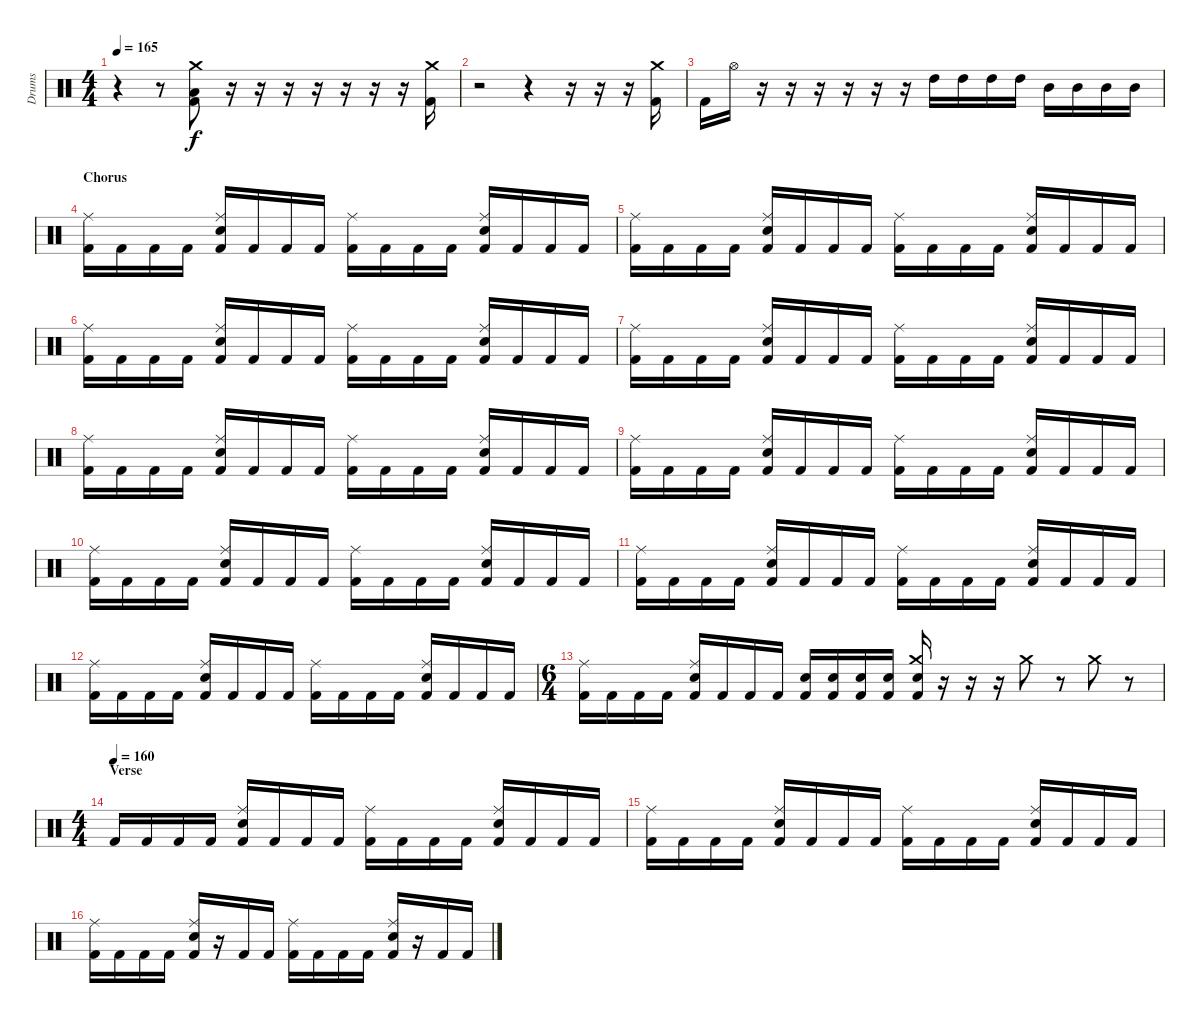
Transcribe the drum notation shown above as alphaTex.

\track ("Drums" "Drums") {instrument percussion}
\staff {score}
\articulation defaults
\ts (4 4)
\tempo 165
\clef neutral
\ks c
r.4{dy f} r.8 ("Kick (hit) 2" "Low Tom (hit)" "Crash medium (hit)").8 r.16 r.16 r.16 r.16 r.16 r.16 r.16 ("Kick (hit) 2" "Crash medium (hit)").16 |
r.2 r.4 r.16 r.16 r.16 ("Kick (hit) 2" "Crash medium (hit)").16 |
"Kick (hit) 2".16 "Hi-Hat (open)".16 r.16 r.16 r.16 r.16 r.16 r.16 "High Tom (hit)".16 "High Tom (hit)".16 "High Tom (hit)".16 "High Tom (hit)".16 "Mid Tom (hit)".16 "Mid Tom (hit)".16 "Mid Tom (hit)".16 "Mid Tom (hit)".16 |
\section ("" "Chorus")
("Kick (hit) 2" "Ride (middle)").16 "Kick (hit) 2".16 "Kick (hit) 2".16 "Kick (hit) 2".16 ("Kick (hit) 2" "Electric Snare (hit)" "Ride (middle)").16 "Kick (hit) 2".16 "Kick (hit) 2".16 "Kick (hit) 2".16 ("Kick (hit) 2" "Ride (middle)").16 "Kick (hit) 2".16 "Kick (hit) 2".16 "Kick (hit) 2".16 ("Kick (hit) 2" "Electric Snare (hit)" "Ride (middle)").16 "Kick (hit) 2".16 "Kick (hit) 2".16 "Kick (hit) 2".16 |
("Kick (hit) 2" "Ride (middle)").16 "Kick (hit) 2".16 "Kick (hit) 2".16 "Kick (hit) 2".16 ("Kick (hit) 2" "Electric Snare (hit)" "Ride (middle)").16 "Kick (hit) 2".16 "Kick (hit) 2".16 "Kick (hit) 2".16 ("Kick (hit) 2" "Ride (middle)").16 "Kick (hit) 2".16 "Kick (hit) 2".16 "Kick (hit) 2".16 ("Kick (hit) 2" "Electric Snare (hit)" "Ride (middle)").16 "Kick (hit) 2".16 "Kick (hit) 2".16 "Kick (hit) 2".16 |
("Kick (hit) 2" "Ride (middle)").16 "Kick (hit) 2".16 "Kick (hit) 2".16 "Kick (hit) 2".16 ("Kick (hit) 2" "Electric Snare (hit)" "Ride (middle)").16 "Kick (hit) 2".16 "Kick (hit) 2".16 "Kick (hit) 2".16 ("Kick (hit) 2" "Ride (middle)").16 "Kick (hit) 2".16 "Kick (hit) 2".16 "Kick (hit) 2".16 ("Kick (hit) 2" "Electric Snare (hit)" "Ride (middle)").16 "Kick (hit) 2".16 "Kick (hit) 2".16 "Kick (hit) 2".16 |
("Kick (hit) 2" "Ride (middle)").16 "Kick (hit) 2".16 "Kick (hit) 2".16 "Kick (hit) 2".16 ("Kick (hit) 2" "Electric Snare (hit)" "Ride (middle)").16 "Kick (hit) 2".16 "Kick (hit) 2".16 "Kick (hit) 2".16 ("Kick (hit) 2" "Ride (middle)").16 "Kick (hit) 2".16 "Kick (hit) 2".16 "Kick (hit) 2".16 ("Kick (hit) 2" "Electric Snare (hit)" "Ride (middle)").16 "Kick (hit) 2".16 "Kick (hit) 2".16 "Kick (hit) 2".16 |
("Kick (hit) 2" "Ride (middle)").16 "Kick (hit) 2".16 "Kick (hit) 2".16 "Kick (hit) 2".16 ("Kick (hit) 2" "Electric Snare (hit)" "Ride (middle)").16 "Kick (hit) 2".16 "Kick (hit) 2".16 "Kick (hit) 2".16 ("Kick (hit) 2" "Ride (middle)").16 "Kick (hit) 2".16 "Kick (hit) 2".16 "Kick (hit) 2".16 ("Kick (hit) 2" "Electric Snare (hit)" "Ride (middle)").16 "Kick (hit) 2".16 "Kick (hit) 2".16 "Kick (hit) 2".16 |
("Kick (hit) 2" "Ride (middle)").16 "Kick (hit) 2".16 "Kick (hit) 2".16 "Kick (hit) 2".16 ("Kick (hit) 2" "Electric Snare (hit)" "Ride (middle)").16 "Kick (hit) 2".16 "Kick (hit) 2".16 "Kick (hit) 2".16 ("Kick (hit) 2" "Ride (middle)").16 "Kick (hit) 2".16 "Kick (hit) 2".16 "Kick (hit) 2".16 ("Kick (hit) 2" "Electric Snare (hit)" "Ride (middle)").16 "Kick (hit) 2".16 "Kick (hit) 2".16 "Kick (hit) 2".16 |
("Kick (hit) 2" "Ride (middle)").16 "Kick (hit) 2".16 "Kick (hit) 2".16 "Kick (hit) 2".16 ("Kick (hit) 2" "Electric Snare (hit)" "Ride (middle)").16 "Kick (hit) 2".16 "Kick (hit) 2".16 "Kick (hit) 2".16 ("Kick (hit) 2" "Ride (middle)").16 "Kick (hit) 2".16 "Kick (hit) 2".16 "Kick (hit) 2".16 ("Kick (hit) 2" "Electric Snare (hit)" "Ride (middle)").16 "Kick (hit) 2".16 "Kick (hit) 2".16 "Kick (hit) 2".16 |
("Kick (hit) 2" "Ride (middle)").16 "Kick (hit) 2".16 "Kick (hit) 2".16 "Kick (hit) 2".16 ("Kick (hit) 2" "Electric Snare (hit)" "Ride (middle)").16 "Kick (hit) 2".16 "Kick (hit) 2".16 "Kick (hit) 2".16 ("Kick (hit) 2" "Ride (middle)").16 "Kick (hit) 2".16 "Kick (hit) 2".16 "Kick (hit) 2".16 ("Kick (hit) 2" "Electric Snare (hit)" "Ride (middle)").16 "Kick (hit) 2".16 "Kick (hit) 2".16 "Kick (hit) 2".16 |
("Kick (hit) 2" "Ride (middle)").16 "Kick (hit) 2".16 "Kick (hit) 2".16 "Kick (hit) 2".16 ("Kick (hit) 2" "Electric Snare (hit)" "Ride (middle)").16 "Kick (hit) 2".16 "Kick (hit) 2".16 "Kick (hit) 2".16 ("Kick (hit) 2" "Ride (middle)").16 "Kick (hit) 2".16 "Kick (hit) 2".16 "Kick (hit) 2".16 ("Kick (hit) 2" "Electric Snare (hit)" "Ride (middle)").16 "Kick (hit) 2".16 "Kick (hit) 2".16 "Kick (hit) 2".16 |
\ts (6 4)
("Kick (hit) 2" "Ride (middle)").16 "Kick (hit) 2".16 "Kick (hit) 2".16 "Kick (hit) 2".16 ("Kick (hit) 2" "Electric Snare (hit)" "Ride (middle)").16 "Kick (hit) 2".16 "Kick (hit) 2".16 "Kick (hit) 2".16 ("Kick (hit) 2" "Electric Snare (hit)").16 ("Kick (hit) 2" "Electric Snare (hit)").16 ("Kick (hit) 2" "Electric Snare (hit)").16 ("Kick (hit) 2" "Electric Snare (hit)").16 ("Kick (hit) 2" "Electric Snare (hit)" "Crash medium (hit)").16 r.16 r.16 r.16 "Crash medium (hit)".8 r.8 "Crash medium (hit)".8 r.8 |
\ts (4 4)
\section ("" "Verse")
\tempo (160)
"Kick (hit) 2".16 "Kick (hit) 2".16 "Kick (hit) 2".16 "Kick (hit) 2".16 ("Kick (hit) 2" "Electric Snare (hit)" "Ride (middle)").16 "Kick (hit) 2".16 "Kick (hit) 2".16 "Kick (hit) 2".16 ("Kick (hit) 2" "Ride (middle)").16 "Kick (hit) 2".16 "Kick (hit) 2".16 "Kick (hit) 2".16 ("Kick (hit) 2" "Electric Snare (hit)" "Ride (middle)").16 "Kick (hit) 2".16 "Kick (hit) 2".16 "Kick (hit) 2".16 |
("Kick (hit) 2" "Ride (middle)").16 "Kick (hit) 2".16 "Kick (hit) 2".16 "Kick (hit) 2".16 ("Kick (hit) 2" "Electric Snare (hit)" "Ride (middle)").16 "Kick (hit) 2".16 "Kick (hit) 2".16 "Kick (hit) 2".16 ("Kick (hit) 2" "Ride (middle)").16 "Kick (hit) 2".16 "Kick (hit) 2".16 "Kick (hit) 2".16 ("Kick (hit) 2" "Electric Snare (hit)" "Ride (middle)").16 "Kick (hit) 2".16 "Kick (hit) 2".16 "Kick (hit) 2".16 |
\section ("" "")
("Kick (hit) 2" "Ride (middle)").16 "Kick (hit) 2".16 "Kick (hit) 2".16 "Kick (hit) 2".16 ("Kick (hit) 2" "Electric Snare (hit)" "Ride (middle)").16 r.16 "Kick (hit) 2".16 "Kick (hit) 2".16 ("Kick (hit) 2" "Ride (middle)").16 "Kick (hit) 2".16 "Kick (hit) 2".16 "Kick (hit) 2".16 ("Kick (hit) 2" "Electric Snare (hit)" "Ride (middle)").16 r.16 "Kick (hit) 2".16 "Kick (hit) 2".16
